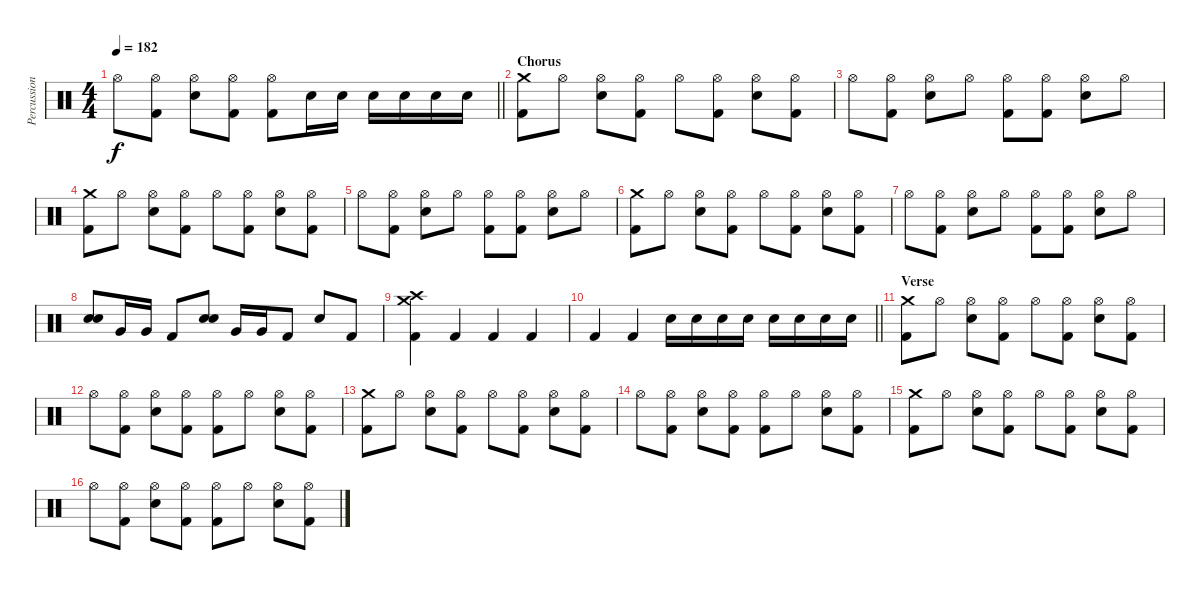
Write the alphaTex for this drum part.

\track ("Percussion" "Percussion") {instrument percussion}
\staff {score}
\articulation defaults
\ts (4 4)
\tempo 182
\clef neutral
\barLineRight lightlight
\ks c "Hi-Hat (open)".8{dy f}
("Hi-Hat (open)" "Kick (hit) 2").8 ("Hi-Hat (open)" "Electric Snare (hit)").8 ("Hi-Hat (open)" "Kick (hit) 2").8 ("Hi-Hat (open)" "Kick (hit) 2").8 "Electric Snare (hit)".16 "Electric Snare (hit)".16 "Electric Snare (hit)".16 "Electric Snare (hit)".16 "Electric Snare (hit)".16 "Electric Snare (hit)".16 |
\section ("" "Chorus")
("Crash medium (hit)" "Kick (hit) 2").8 "Hi-Hat (open)".8 ("Hi-Hat (open)" "Electric Snare (hit)").8 ("Hi-Hat (open)" "Kick (hit) 2").8 "Hi-Hat (open)".8 ("Hi-Hat (open)" "Kick (hit) 2").8 ("Hi-Hat (open)" "Electric Snare (hit)").8 ("Hi-Hat (open)" "Kick (hit) 2").8 |
"Hi-Hat (open)".8 ("Hi-Hat (open)" "Kick (hit) 2").8 ("Hi-Hat (open)" "Electric Snare (hit)").8 "Hi-Hat (open)".8 ("Hi-Hat (open)" "Kick (hit) 2").8 ("Hi-Hat (open)" "Kick (hit) 2").8 ("Hi-Hat (open)" "Electric Snare (hit)").8 "Hi-Hat (open)".8 |
("Crash medium (hit)" "Kick (hit) 2").8 "Hi-Hat (open)".8 ("Hi-Hat (open)" "Electric Snare (hit)").8 ("Hi-Hat (open)" "Kick (hit) 2").8 "Hi-Hat (open)".8 ("Hi-Hat (open)" "Kick (hit) 2").8 ("Hi-Hat (open)" "Electric Snare (hit)").8 ("Hi-Hat (open)" "Kick (hit) 2").8 |
"Hi-Hat (open)".8 ("Hi-Hat (open)" "Kick (hit) 2").8 ("Hi-Hat (open)" "Electric Snare (hit)").8 "Hi-Hat (open)".8 ("Hi-Hat (open)" "Kick (hit) 2").8 ("Hi-Hat (open)" "Kick (hit) 2").8 ("Hi-Hat (open)" "Electric Snare (hit)").8 "Hi-Hat (open)".8 |
("Crash medium (hit)" "Kick (hit) 2").8 "Hi-Hat (open)".8 ("Hi-Hat (open)" "Electric Snare (hit)").8 ("Hi-Hat (open)" "Kick (hit) 2").8 "Hi-Hat (open)".8 ("Hi-Hat (open)" "Kick (hit) 2").8 ("Hi-Hat (open)" "Electric Snare (hit)").8 ("Hi-Hat (open)" "Kick (hit) 2").8 |
"Hi-Hat (open)".8 ("Hi-Hat (open)" "Kick (hit) 2").8 ("Hi-Hat (open)" "Electric Snare (hit)").8 "Hi-Hat (open)".8 ("Hi-Hat (open)" "Kick (hit) 2").8 ("Hi-Hat (open)" "Kick (hit) 2").8 ("Hi-Hat (open)" "Electric Snare (hit)").8 "Hi-Hat (open)".8 |
("Electric Snare (hit)" "Electric Snare (hit)").8 "Very Low Tom (hit)".16 "Very Low Tom (hit)".16 "Kick (hit) 2".8 ("Electric Snare (hit)" "Electric Snare (hit)").8 "Very Low Tom (hit)".16 "Very Low Tom (hit)".16 "Kick (hit) 2".8 "Electric Snare (hit)".8 "Kick (hit) 2".8 |
("Crash medium (hit)" "Crash high (hit)" "Kick (hit) 2").4 "Kick (hit) 2".4 "Kick (hit) 2".4 "Kick (hit) 2".4 |
\barLineRight lightlight "Kick (hit) 2".4 "Kick (hit) 2".4 "Electric Snare (hit)".16 "Electric Snare (hit)".16 "Electric Snare (hit)".16 "Electric Snare (hit)".16 "Electric Snare (hit)".16 "Electric Snare (hit)".16 "Electric Snare (hit)".16 "Electric Snare (hit)".16
|
\section ("" "Verse")
("Crash medium (hit)" "Kick (hit) 2").8 "Hi-Hat (open)".8 ("Hi-Hat (open)" "Electric Snare (hit)").8 ("Hi-Hat (open)" "Kick (hit) 2").8 "Hi-Hat (open)".8 ("Hi-Hat (open)" "Kick (hit) 2").8 ("Hi-Hat (open)" "Electric Snare (hit)").8 ("Hi-Hat (open)" "Kick (hit) 2").8 |
"Hi-Hat (open)".8 ("Hi-Hat (open)" "Kick (hit) 2").8 ("Hi-Hat (open)" "Electric Snare (hit)").8 ("Hi-Hat (open)" "Kick (hit) 2").8 ("Hi-Hat (open)" "Kick (hit) 2").8 "Hi-Hat (open)".8 ("Hi-Hat (open)" "Electric Snare (hit)").8 ("Hi-Hat (open)" "Kick (hit) 2").8 |
("Crash medium (hit)" "Kick (hit) 2").8 "Hi-Hat (open)".8 ("Hi-Hat (open)" "Electric Snare (hit)").8 ("Hi-Hat (open)" "Kick (hit) 2").8 "Hi-Hat (open)".8 ("Hi-Hat (open)" "Kick (hit) 2").8 ("Hi-Hat (open)" "Electric Snare (hit)").8 ("Hi-Hat (open)" "Kick (hit) 2").8 |
"Hi-Hat (open)".8 ("Hi-Hat (open)" "Kick (hit) 2").8 ("Hi-Hat (open)" "Electric Snare (hit)").8 ("Hi-Hat (open)" "Kick (hit) 2").8 ("Hi-Hat (open)" "Kick (hit) 2").8 "Hi-Hat (open)".8 ("Hi-Hat (open)" "Electric Snare (hit)").8 ("Hi-Hat (open)" "Kick (hit) 2").8 |
("Crash medium (hit)" "Kick (hit) 2").8 "Hi-Hat (open)".8 ("Hi-Hat (open)" "Electric Snare (hit)").8 ("Hi-Hat (open)" "Kick (hit) 2").8 "Hi-Hat (open)".8 ("Hi-Hat (open)" "Kick (hit) 2").8 ("Hi-Hat (open)" "Electric Snare (hit)").8 ("Hi-Hat (open)" "Kick (hit) 2").8 |
"Hi-Hat (open)".8 ("Hi-Hat (open)" "Kick (hit) 2").8 ("Hi-Hat (open)" "Electric Snare (hit)").8 ("Hi-Hat (open)" "Kick (hit) 2").8 ("Hi-Hat (open)" "Kick (hit) 2").8 "Hi-Hat (open)".8 ("Hi-Hat (open)" "Electric Snare (hit)").8 ("Hi-Hat (open)" "Kick (hit) 2").8
